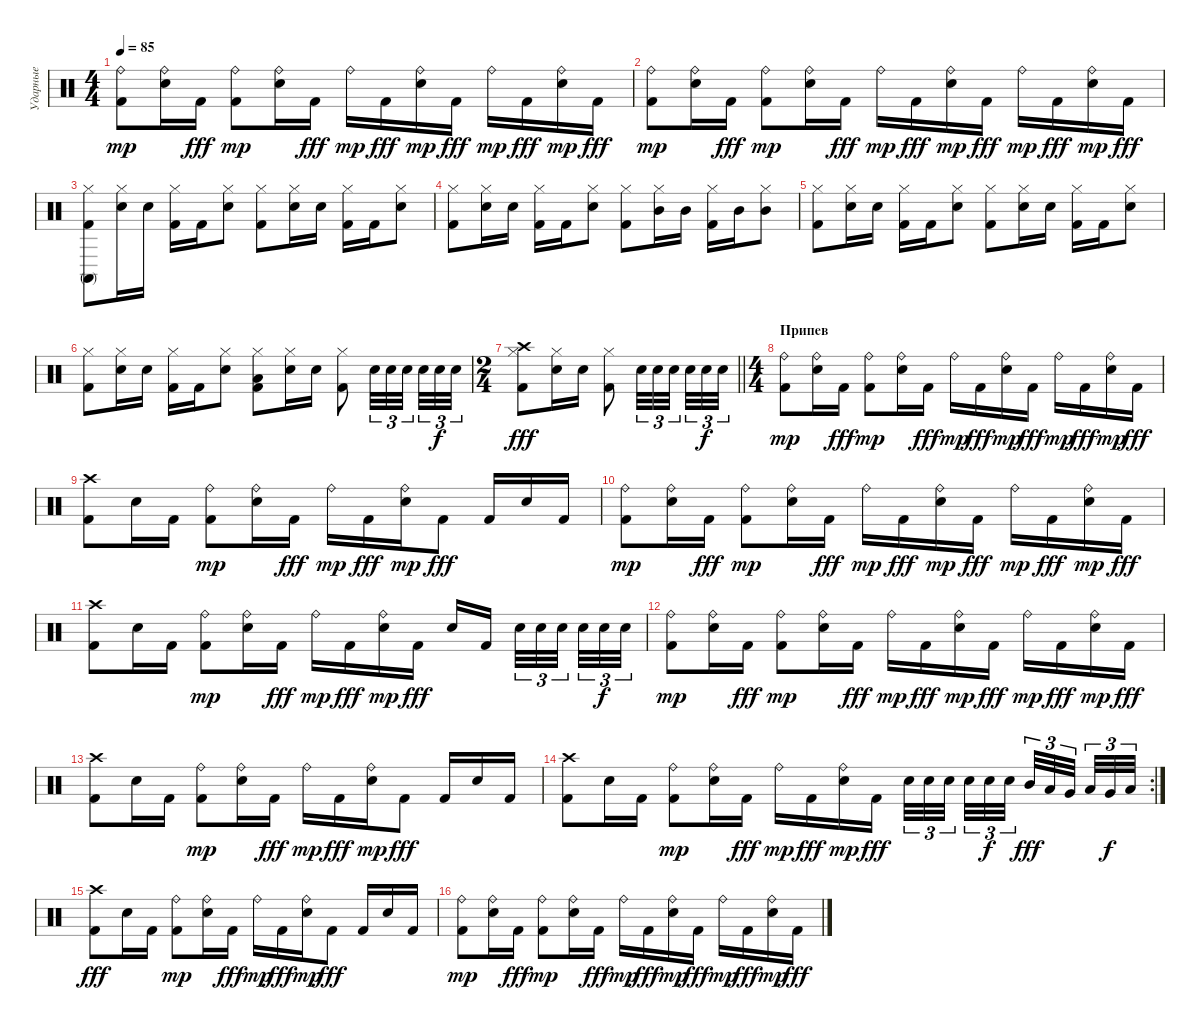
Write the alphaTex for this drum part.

\track ("Ударные" "Ударные") {instrument percussion}
\staff {score}
\articulation defaults
\ts (4 4)
\tempo 85
\clef neutral
\ks c
("Kick (hit) 2" "Ride (bell)").8{dy mp} ("Electric Snare (hit)" "Ride (bell)").16 "Kick (hit) 2".16{dy fff} ("Kick (hit) 2" "Ride (bell)").8{dy mp} ("Electric Snare (hit)" "Ride (bell)").16 "Kick (hit) 2".16{dy fff} "Ride (bell)".16{dy mp} "Kick (hit) 2".16{dy fff} ("Electric Snare (hit)" "Ride (bell)").16{dy mp} "Kick (hit) 2".16{dy fff} "Ride (bell)".16{dy mp} "Kick (hit) 2".16{dy fff} ("Electric Snare (hit)" "Ride (bell)").16{dy mp} "Kick (hit) 2".16{dy fff} |
("Kick (hit) 2" "Ride (bell)").8{dy mp} ("Electric Snare (hit)" "Ride (bell)").16 "Kick (hit) 2".16{dy fff} ("Kick (hit) 2" "Ride (bell)").8{dy mp} ("Electric Snare (hit)" "Ride (bell)").16 "Kick (hit) 2".16{dy fff} "Ride (bell)".16{dy mp} "Kick (hit) 2".16{dy fff} ("Electric Snare (hit)" "Ride (bell)").16{dy mp} "Kick (hit) 2".16{dy fff} "Ride (bell)".16{dy mp} "Kick (hit) 2".16{dy fff} ("Electric Snare (hit)" "Ride (bell)").16{dy mp} "Kick (hit) 2".16{dy fff} |
("Kick (hit) 2" "Conga high (mute)" "Hi-Hat (closed)").8 ("Electric Snare (hit)" "Hi-Hat (closed)").16 "Electric Snare (hit)".16 ("Kick (hit) 2" "Hi-Hat (closed)").16 "Kick (hit) 2".16 ("Electric Snare (hit)" "Hi-Hat (closed)").8 ("Kick (hit) 2" "Hi-Hat (closed)").8 ("Electric Snare (hit)" "Hi-Hat (closed)").16 "Electric Snare (hit)".16 ("Kick (hit) 2" "Hi-Hat (closed)").16 "Kick (hit) 2".16 ("Electric Snare (hit)" "Hi-Hat (closed)").8 |
("Kick (hit) 2" "Hi-Hat (closed)").8 ("Electric Snare (hit)" "Hi-Hat (closed)").16 "Electric Snare (hit)".16 ("Kick (hit) 2" "Hi-Hat (closed)").16 "Kick (hit) 2".16 ("Electric Snare (hit)" "Hi-Hat (closed)").8 ("Kick (hit) 2" "Hi-Hat (closed)").8 ("Mid Tom (hit)" "Hi-Hat (closed)").16 "Mid Tom (hit)".16 ("Kick (hit) 2" "Hi-Hat (closed)").16 "Mid Tom (hit)".16 ("Mid Tom (hit)" "Hi-Hat (closed)").8 |
("Kick (hit) 2" "Hi-Hat (closed)").8 ("Electric Snare (hit)" "Hi-Hat (closed)").16 "Electric Snare (hit)".16 ("Kick (hit) 2" "Hi-Hat (closed)").16 "Kick (hit) 2".16 ("Electric Snare (hit)" "Hi-Hat (closed)").8 ("Kick (hit) 2" "Hi-Hat (closed)").8 ("Electric Snare (hit)" "Hi-Hat (closed)").16 "Electric Snare (hit)".16 ("Kick (hit) 2" "Hi-Hat (closed)").16 "Kick (hit) 2".16 ("Electric Snare (hit)" "Hi-Hat (closed)").8 |
("Kick (hit) 2" "Hi-Hat (closed)").8 ("Electric Snare (hit)" "Hi-Hat (closed)").16 "Electric Snare (hit)".16 ("Kick (hit) 2" "Hi-Hat (closed)").16 "Kick (hit) 2".16 ("Electric Snare (hit)" "Hi-Hat (closed)").8 ("Kick (hit) 2" "Low Floor Tom (hit)" "Hi-Hat (closed)").8 ("Electric Snare (hit)" "Hi-Hat (closed)").16 "Electric Snare (hit)".16 ("Kick (hit) 2" "Hi-Hat (closed)").8 "Electric Snare (hit)".32{tu (3 2)} "Electric Snare (hit)".32{tu (3 2)} "Electric Snare (hit)".32{tu (3 2) beam splitsecondary} "Electric Snare (hit)".32{tu (3 2)} "Electric Snare (hit)".32{tu (3 2) dy f} "Electric Snare (hit)".32{tu (3 2)} |
\ts (2 4)
\barLineRight lightlight
("Kick (hit) 2" "Crash high (hit)" "Hi-Hat (closed)").8{dy fff} ("Electric Snare (hit)" "Hi-Hat (closed)").16 "Electric Snare (hit)".16 ("Kick (hit) 2" "Hi-Hat (closed)").8 "Electric Snare (hit)".32{tu (3 2)} "Electric Snare (hit)".32{tu (3 2)} "Electric Snare (hit)".32{tu (3 2) beam splitsecondary} "Electric Snare (hit)".32{tu (3 2)} "Electric Snare (hit)".32{tu (3 2) dy f} "Electric Snare (hit)".32{tu (3 2)} |
\ts (4 4)
\section ("" "Припев")
("Kick (hit) 2" "Ride (bell)").8{dy mp} ("Electric Snare (hit)" "Ride (bell)").16 "Kick (hit) 2".16{dy fff} ("Kick (hit) 2" "Ride (bell)").8{dy mp} ("Electric Snare (hit)" "Ride (bell)").16 "Kick (hit) 2".16{dy fff} "Ride (bell)".16{dy mp} "Kick (hit) 2".16{dy fff} ("Electric Snare (hit)" "Ride (bell)").16{dy mp} "Kick (hit) 2".16{dy fff} "Ride (bell)".16{dy mp} "Kick (hit) 2".16{dy fff} ("Electric Snare (hit)" "Ride (bell)").16{dy mp} "Kick (hit) 2".16{dy fff} |
("Kick (hit) 2" "Crash high (hit)").8 "Electric Snare (hit)".16 "Kick (hit) 2".16 ("Kick (hit) 2" "Ride (bell)").8{dy mp} ("Electric Snare (hit)" "Ride (bell)").16 "Kick (hit) 2".16{dy fff} "Ride (bell)".16{dy mp} "Kick (hit) 2".16{dy fff} ("Electric Snare (hit)" "Ride (bell)").16{dy mp} "Kick (hit) 2".8{dy fff} "Kick (hit) 2".16 "Electric Snare (hit)".16 "Kick (hit) 2".16 |
("Kick (hit) 2" "Ride (bell)").8{dy mp} ("Electric Snare (hit)" "Ride (bell)").16 "Kick (hit) 2".16{dy fff} ("Kick (hit) 2" "Ride (bell)").8{dy mp} ("Electric Snare (hit)" "Ride (bell)").16 "Kick (hit) 2".16{dy fff} "Ride (bell)".16{dy mp} "Kick (hit) 2".16{dy fff} ("Electric Snare (hit)" "Ride (bell)").16{dy mp} "Kick (hit) 2".16{dy fff} "Ride (bell)".16{dy mp} "Kick (hit) 2".16{dy fff} ("Electric Snare (hit)" "Ride (bell)").16{dy mp} "Kick (hit) 2".16{dy fff} |
("Kick (hit) 2" "Crash high (hit)").8 "Electric Snare (hit)".16 "Kick (hit) 2".16 ("Kick (hit) 2" "Ride (bell)").8{dy mp} ("Electric Snare (hit)" "Ride (bell)").16 "Kick (hit) 2".16{dy fff} "Ride (bell)".16{dy mp} "Kick (hit) 2".16{dy fff} ("Electric Snare (hit)" "Ride (bell)").16{dy mp} "Kick (hit) 2".16{dy fff} "Electric Snare (hit)".16 "Kick (hit) 2".16{beam splitsecondary} "Electric Snare (hit)".32{tu (3 2)} "Electric Snare (hit)".32{tu (3 2)} "Electric Snare (hit)".32{tu (3 2) beam splitsecondary} "Electric Snare (hit)".32{tu (3 2)} "Electric Snare (hit)".32{tu (3 2) dy f} "Electric Snare (hit)".32{tu (3 2)} |
("Kick (hit) 2" "Ride (bell)").8{dy mp} ("Electric Snare (hit)" "Ride (bell)").16 "Kick (hit) 2".16{dy fff} ("Kick (hit) 2" "Ride (bell)").8{dy mp} ("Electric Snare (hit)" "Ride (bell)").16 "Kick (hit) 2".16{dy fff} "Ride (bell)".16{dy mp} "Kick (hit) 2".16{dy fff} ("Electric Snare (hit)" "Ride (bell)").16{dy mp} "Kick (hit) 2".16{dy fff} "Ride (bell)".16{dy mp} "Kick (hit) 2".16{dy fff} ("Electric Snare (hit)" "Ride (bell)").16{dy mp} "Kick (hit) 2".16{dy fff} |
("Kick (hit) 2" "Crash high (hit)").8 "Electric Snare (hit)".16 "Kick (hit) 2".16 ("Kick (hit) 2" "Ride (bell)").8{dy mp} ("Electric Snare (hit)" "Ride (bell)").16 "Kick (hit) 2".16{dy fff} "Ride (bell)".16{dy mp} "Kick (hit) 2".16{dy fff} ("Electric Snare (hit)" "Ride (bell)").16{dy mp} "Kick (hit) 2".8{dy fff} "Kick (hit) 2".16 "Electric Snare (hit)".16 "Kick (hit) 2".16 |
\rc 2
("Kick (hit) 2" "Crash high (hit)").8 "Electric Snare (hit)".16 "Kick (hit) 2".16 ("Kick (hit) 2" "Ride (bell)").8{dy mp} ("Electric Snare (hit)" "Ride (bell)").16 "Kick (hit) 2".16{dy fff} "Ride (bell)".16{dy mp} "Kick (hit) 2".16{dy fff} ("Electric Snare (hit)" "Ride (bell)").16{dy mp} "Kick (hit) 2".16{dy fff} "Electric Snare (hit)".32{tu (3 2)} "Electric Snare (hit)".32{tu (3 2)} "Electric Snare (hit)".32{tu (3 2) beam splitsecondary} "Electric Snare (hit)".32{tu (3 2)} "Electric Snare (hit)".32{tu (3 2) dy f} "Electric Snare (hit)".32{tu (3 2) beam splitsecondary} "Mid Tom (hit)".32{tu (3 2) dy fff} "Low Tom (hit)".32{tu (3 2)} "Very Low Tom (hit)".32{tu (3 2) beam splitsecondary} "Low Tom (hit)".32{tu (3 2)} "Very Low Tom (hit)".32{tu (3 2) dy f} "Low Floor Tom (hit)".32{tu (3 2)} |
("Kick (hit) 2" "Crash high (hit)").8{dy fff} "Electric Snare (hit)".16 "Kick (hit) 2".16 ("Kick (hit) 2" "Ride (bell)").8{dy mp} ("Electric Snare (hit)" "Ride (bell)").16 "Kick (hit) 2".16{dy fff} "Ride (bell)".16{dy mp} "Kick (hit) 2".16{dy fff} ("Electric Snare (hit)" "Ride (bell)").16{dy mp} "Kick (hit) 2".8{dy fff} "Kick (hit) 2".16 "Electric Snare (hit)".16 "Kick (hit) 2".16 |
("Kick (hit) 2" "Ride (bell)").8{dy mp} ("Electric Snare (hit)" "Ride (bell)").16 "Kick (hit) 2".16{dy fff} ("Kick (hit) 2" "Ride (bell)").8{dy mp} ("Electric Snare (hit)" "Ride (bell)").16 "Kick (hit) 2".16{dy fff} "Ride (bell)".16{dy mp} "Kick (hit) 2".16{dy fff} ("Electric Snare (hit)" "Ride (bell)").16{dy mp} "Kick (hit) 2".16{dy fff} "Ride (bell)".16{dy mp} "Kick (hit) 2".16{dy fff} ("Electric Snare (hit)" "Ride (bell)").16{dy mp} "Kick (hit) 2".16{dy fff}
